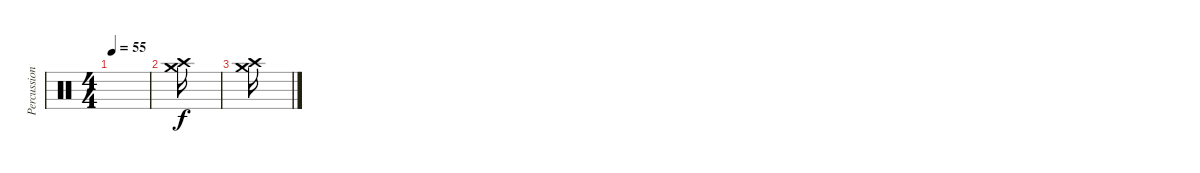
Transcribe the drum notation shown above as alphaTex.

\track ("Percussion" "Percussion") {instrument percussion}
\staff {score}
\articulation defaults
\ts (4 4)
\tempo 55
\clef neutral
\ks c
|
("Crash high (hit)" "Crash medium (hit)").16 |
("Crash high (hit)" "Crash medium (hit)").16
